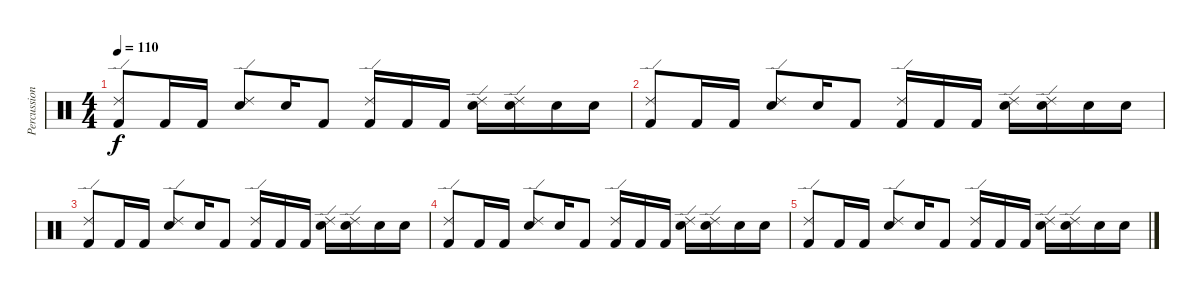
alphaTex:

\track ("Percussion" "Percussion") {instrument percussion}
\staff {score}
\articulation defaults
\ts (4 4)
\tempo 110
\clef neutral
\ks c
("Ride (edge) 2" "Kick (hit) 2").8{dy f} "Kick (hit) 2".16 "Kick (hit) 2".16 ("Ride (edge) 2" "Electric Snare (hit)").8 "Electric Snare (hit)".16 "Kick (hit) 2".8 ("Ride (edge) 2" "Kick (hit) 2").16 "Kick (hit) 2".16 "Kick (hit) 2".16 ("Ride (edge) 2" "Electric Snare (hit)").16 ("Ride (edge) 2" "Electric Snare (hit)").16 "Electric Snare (hit)".16 "Electric Snare (hit)".16 |
("Ride (edge) 2" "Kick (hit) 2").8 "Kick (hit) 2".16 "Kick (hit) 2".16 ("Ride (edge) 2" "Electric Snare (hit)").8 "Electric Snare (hit)".16 "Kick (hit) 2".8 ("Ride (edge) 2" "Kick (hit) 2").16 "Kick (hit) 2".16 "Kick (hit) 2".16 ("Ride (edge) 2" "Electric Snare (hit)").16 ("Ride (edge) 2" "Electric Snare (hit)").16 "Electric Snare (hit)".16 "Electric Snare (hit)".16 |
("Ride (edge) 2" "Kick (hit) 2").8 "Kick (hit) 2".16 "Kick (hit) 2".16 ("Ride (edge) 2" "Electric Snare (hit)").8 "Electric Snare (hit)".16 "Kick (hit) 2".8 ("Ride (edge) 2" "Kick (hit) 2").16 "Kick (hit) 2".16 "Kick (hit) 2".16 ("Ride (edge) 2" "Electric Snare (hit)").16 ("Ride (edge) 2" "Electric Snare (hit)").16 "Electric Snare (hit)".16 "Electric Snare (hit)".16 |
("Ride (edge) 2" "Kick (hit) 2").8 "Kick (hit) 2".16 "Kick (hit) 2".16 ("Ride (edge) 2" "Electric Snare (hit)").8 "Electric Snare (hit)".16 "Kick (hit) 2".8 ("Ride (edge) 2" "Kick (hit) 2").16 "Kick (hit) 2".16 "Kick (hit) 2".16 ("Ride (edge) 2" "Electric Snare (hit)").16 ("Ride (edge) 2" "Electric Snare (hit)").16 "Electric Snare (hit)".16 "Electric Snare (hit)".16 |
("Ride (edge) 2" "Kick (hit) 2").8 "Kick (hit) 2".16 "Kick (hit) 2".16 ("Ride (edge) 2" "Electric Snare (hit)").8 "Electric Snare (hit)".16 "Kick (hit) 2".8 ("Ride (edge) 2" "Kick (hit) 2").16 "Kick (hit) 2".16 "Kick (hit) 2".16 ("Ride (edge) 2" "Electric Snare (hit)").16 ("Ride (edge) 2" "Electric Snare (hit)").16 "Electric Snare (hit)".16 "Electric Snare (hit)".16
